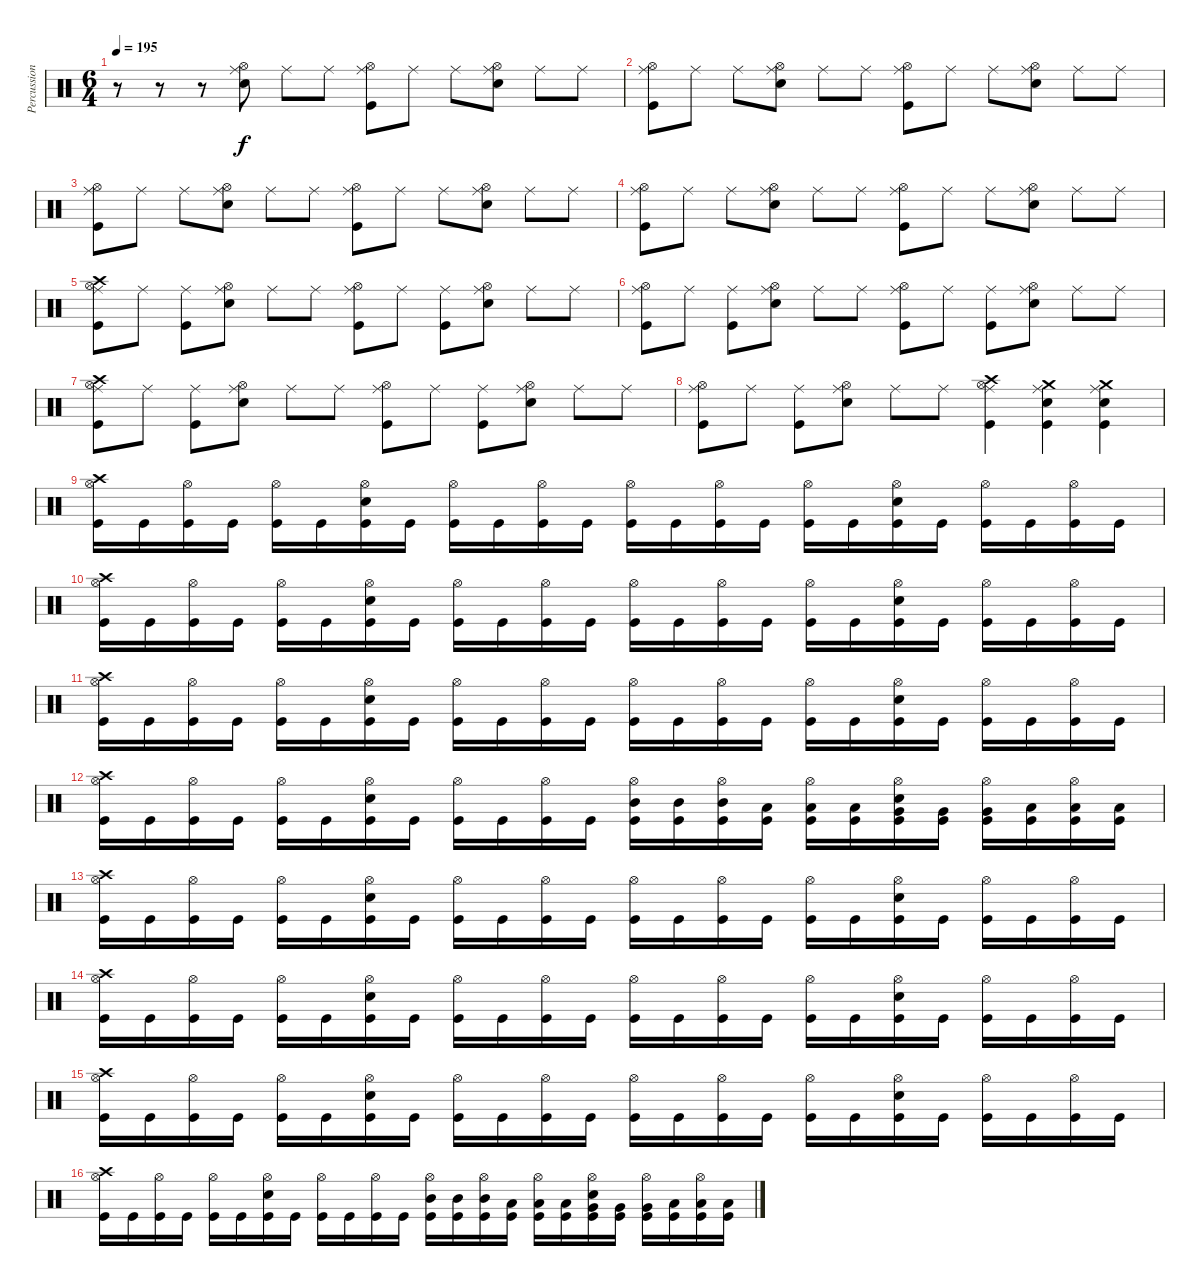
\track ("Percussion" "Percussion") {instrument percussion}
\staff {score}
\articulation defaults
\ts (6 4)
\tempo 195
\clef neutral
\ks c
r.8{dy f} r.8 r.8 ("Hi-Hat (open)" "Ride (middle)" "Electric Snare (hit)").8 "Ride (middle)".8 "Ride (middle)".8 ("Hi-Hat (open)" "Ride (middle)" "Kick (hit)").8 "Ride (middle)".8 "Ride (middle)".8 ("Hi-Hat (open)" "Ride (middle)" "Electric Snare (hit)").8 "Ride (middle)".8 "Ride (middle)".8 |
("Hi-Hat (open)" "Ride (middle)" "Kick (hit)").8 "Ride (middle)".8 "Ride (middle)".8 ("Hi-Hat (open)" "Ride (middle)" "Electric Snare (hit)").8 "Ride (middle)".8 "Ride (middle)".8 ("Hi-Hat (open)" "Ride (middle)" "Kick (hit)").8 "Ride (middle)".8 "Ride (middle)".8 ("Hi-Hat (open)" "Ride (middle)" "Electric Snare (hit)").8 "Ride (middle)".8 "Ride (middle)".8 |
("Hi-Hat (open)" "Ride (middle)" "Kick (hit)").8 "Ride (middle)".8 "Ride (middle)".8 ("Hi-Hat (open)" "Ride (middle)" "Electric Snare (hit)").8 "Ride (middle)".8 "Ride (middle)".8 ("Hi-Hat (open)" "Ride (middle)" "Kick (hit)").8 "Ride (middle)".8 "Ride (middle)".8 ("Hi-Hat (open)" "Ride (middle)" "Electric Snare (hit)").8 "Ride (middle)".8 "Ride (middle)".8 |
("Hi-Hat (open)" "Ride (middle)" "Kick (hit)").8 "Ride (middle)".8 "Ride (middle)".8 ("Hi-Hat (open)" "Ride (middle)" "Electric Snare (hit)").8 "Ride (middle)".8 "Ride (middle)".8 ("Hi-Hat (open)" "Ride (middle)" "Kick (hit)").8 "Ride (middle)".8 "Ride (middle)".8 ("Hi-Hat (open)" "Ride (middle)" "Electric Snare (hit)").8 "Ride (middle)".8 "Ride (middle)".8 |
("Hi-Hat (open)" "Ride (middle)" "Crash high (hit)" "Kick (hit)").8 "Ride (middle)".8 ("Ride (middle)" "Kick (hit)").8 ("Hi-Hat (open)" "Ride (middle)" "Electric Snare (hit)").8 "Ride (middle)".8 "Ride (middle)".8 ("Hi-Hat (open)" "Ride (middle)" "Kick (hit)").8 "Ride (middle)".8 ("Ride (middle)" "Kick (hit)").8 ("Hi-Hat (open)" "Ride (middle)" "Electric Snare (hit)").8 "Ride (middle)".8 "Ride (middle)".8 |
("Hi-Hat (open)" "Ride (middle)" "Kick (hit)").8 "Ride (middle)".8 ("Ride (middle)" "Kick (hit)").8 ("Hi-Hat (open)" "Ride (middle)" "Electric Snare (hit)").8 "Ride (middle)".8 "Ride (middle)".8 ("Hi-Hat (open)" "Ride (middle)" "Kick (hit)").8 "Ride (middle)".8 ("Ride (middle)" "Kick (hit)").8 ("Hi-Hat (open)" "Ride (middle)" "Electric Snare (hit)").8 "Ride (middle)".8 "Ride (middle)".8 |
("Hi-Hat (open)" "Ride (middle)" "Crash high (hit)" "Kick (hit)").8 "Ride (middle)".8 ("Ride (middle)" "Kick (hit)").8 ("Hi-Hat (open)" "Ride (middle)" "Electric Snare (hit)").8 "Ride (middle)".8 "Ride (middle)".8 ("Hi-Hat (open)" "Ride (middle)" "Kick (hit)").8 "Ride (middle)".8 ("Ride (middle)" "Kick (hit)").8 ("Hi-Hat (open)" "Ride (middle)" "Electric Snare (hit)").8 "Ride (middle)".8 "Ride (middle)".8 |
("Hi-Hat (open)" "Ride (middle)" "Kick (hit)").8 "Ride (middle)".8 ("Ride (middle)" "Kick (hit)").8 ("Hi-Hat (open)" "Ride (middle)" "Electric Snare (hit)").8 "Ride (middle)".8 "Ride (middle)".8 ("Hi-Hat (open)" "Ride (middle)" "Crash high (hit)" "Kick (hit)").4 ("Crash medium (hit)" "Ride (middle)" "Electric Snare (hit)" "Kick (hit)").4 ("Crash medium (hit)" "Ride (middle)" "Electric Snare (hit)" "Kick (hit)").4 |
("Crash high (hit)" "Hi-Hat (open)" "Kick (hit)").16 "Kick (hit)".16 ("Hi-Hat (open)" "Kick (hit)").16 "Kick (hit)".16 ("Hi-Hat (open)" "Kick (hit)").16 "Kick (hit)".16 ("Electric Snare (hit)" "Hi-Hat (open)" "Kick (hit)").16 "Kick (hit)".16 ("Hi-Hat (open)" "Kick (hit)").16 "Kick (hit)".16 ("Hi-Hat (open)" "Kick (hit)").16 "Kick (hit)".16 ("Hi-Hat (open)" "Kick (hit)").16 "Kick (hit)".16 ("Hi-Hat (open)" "Kick (hit)").16 "Kick (hit)".16 ("Hi-Hat (open)" "Kick (hit)").16 "Kick (hit)".16 ("Electric Snare (hit)" "Hi-Hat (open)" "Kick (hit)").16 "Kick (hit)".16 ("Hi-Hat (open)" "Kick (hit)").16 "Kick (hit)".16 ("Hi-Hat (open)" "Kick (hit)").16 "Kick (hit)".16 |
("Crash high (hit)" "Hi-Hat (open)" "Kick (hit)").16 "Kick (hit)".16 ("Hi-Hat (open)" "Kick (hit)").16 "Kick (hit)".16 ("Hi-Hat (open)" "Kick (hit)").16 "Kick (hit)".16 ("Electric Snare (hit)" "Hi-Hat (open)" "Kick (hit)").16 "Kick (hit)".16 ("Hi-Hat (open)" "Kick (hit)").16 "Kick (hit)".16 ("Hi-Hat (open)" "Kick (hit)").16 "Kick (hit)".16 ("Hi-Hat (open)" "Kick (hit)").16 "Kick (hit)".16 ("Hi-Hat (open)" "Kick (hit)").16 "Kick (hit)".16 ("Hi-Hat (open)" "Kick (hit)").16 "Kick (hit)".16 ("Electric Snare (hit)" "Hi-Hat (open)" "Kick (hit)").16 "Kick (hit)".16 ("Hi-Hat (open)" "Kick (hit)").16 "Kick (hit)".16 ("Hi-Hat (open)" "Kick (hit)").16 "Kick (hit)".16 |
("Crash high (hit)" "Hi-Hat (open)" "Kick (hit)").16 "Kick (hit)".16 ("Hi-Hat (open)" "Kick (hit)").16 "Kick (hit)".16 ("Hi-Hat (open)" "Kick (hit)").16 "Kick (hit)".16 ("Electric Snare (hit)" "Hi-Hat (open)" "Kick (hit)").16 "Kick (hit)".16 ("Hi-Hat (open)" "Kick (hit)").16 "Kick (hit)".16 ("Hi-Hat (open)" "Kick (hit)").16 "Kick (hit)".16 ("Hi-Hat (open)" "Kick (hit)").16 "Kick (hit)".16 ("Hi-Hat (open)" "Kick (hit)").16 "Kick (hit)".16 ("Hi-Hat (open)" "Kick (hit)").16 "Kick (hit)".16 ("Electric Snare (hit)" "Hi-Hat (open)" "Kick (hit)").16 "Kick (hit)".16 ("Hi-Hat (open)" "Kick (hit)").16 "Kick (hit)".16 ("Hi-Hat (open)" "Kick (hit)").16 "Kick (hit)".16 |
("Crash high (hit)" "Hi-Hat (open)" "Kick (hit)").16 "Kick (hit)".16 ("Hi-Hat (open)" "Kick (hit)").16 "Kick (hit)".16 ("Hi-Hat (open)" "Kick (hit)").16 "Kick (hit)".16 ("Electric Snare (hit)" "Hi-Hat (open)" "Kick (hit)").16 "Kick (hit)".16 ("Hi-Hat (open)" "Kick (hit)").16 "Kick (hit)".16 ("Hi-Hat (open)" "Kick (hit)").16 "Kick (hit)".16 ("Hi-Hat (open)" "Mid Tom (hit)" "Kick (hit)").16 ("Mid Tom (hit)" "Kick (hit)").16 ("Hi-Hat (open)" "Mid Tom (hit)" "Kick (hit)").16 ("Low Tom (hit)" "Kick (hit)").16 ("Hi-Hat (open)" "Low Tom (hit)" "Kick (hit)").16 ("Low Tom (hit)" "Kick (hit)").16 ("Electric Snare (hit)" "Hi-Hat (open)" "Very Low Tom (hit)" "Kick (hit)").16 ("Very Low Tom (hit)" "Kick (hit)").16 ("Hi-Hat (open)" "Very Low Tom (hit)" "Kick (hit)").16 ("Low Floor Tom (hit)" "Kick (hit)").16 ("Hi-Hat (open)" "Low Floor Tom (hit)" "Kick (hit)").16 ("Low Floor Tom (hit)" "Kick (hit)").16 |
("Crash high (hit)" "Hi-Hat (open)" "Kick (hit)").16 "Kick (hit)".16 ("Hi-Hat (open)" "Kick (hit)").16 "Kick (hit)".16 ("Hi-Hat (open)" "Kick (hit)").16 "Kick (hit)".16 ("Electric Snare (hit)" "Hi-Hat (open)" "Kick (hit)").16 "Kick (hit)".16 ("Hi-Hat (open)" "Kick (hit)").16 "Kick (hit)".16 ("Hi-Hat (open)" "Kick (hit)").16 "Kick (hit)".16 ("Hi-Hat (open)" "Kick (hit)").16 "Kick (hit)".16 ("Hi-Hat (open)" "Kick (hit)").16 "Kick (hit)".16 ("Hi-Hat (open)" "Kick (hit)").16 "Kick (hit)".16 ("Electric Snare (hit)" "Hi-Hat (open)" "Kick (hit)").16 "Kick (hit)".16 ("Hi-Hat (open)" "Kick (hit)").16 "Kick (hit)".16 ("Hi-Hat (open)" "Kick (hit)").16 "Kick (hit)".16 |
("Crash high (hit)" "Hi-Hat (open)" "Kick (hit)").16 "Kick (hit)".16 ("Hi-Hat (open)" "Kick (hit)").16 "Kick (hit)".16 ("Hi-Hat (open)" "Kick (hit)").16 "Kick (hit)".16 ("Electric Snare (hit)" "Hi-Hat (open)" "Kick (hit)").16 "Kick (hit)".16 ("Hi-Hat (open)" "Kick (hit)").16 "Kick (hit)".16 ("Hi-Hat (open)" "Kick (hit)").16 "Kick (hit)".16 ("Hi-Hat (open)" "Kick (hit)").16 "Kick (hit)".16 ("Hi-Hat (open)" "Kick (hit)").16 "Kick (hit)".16 ("Hi-Hat (open)" "Kick (hit)").16 "Kick (hit)".16 ("Electric Snare (hit)" "Hi-Hat (open)" "Kick (hit)").16 "Kick (hit)".16 ("Hi-Hat (open)" "Kick (hit)").16 "Kick (hit)".16 ("Hi-Hat (open)" "Kick (hit)").16 "Kick (hit)".16 |
("Crash high (hit)" "Hi-Hat (open)" "Kick (hit)").16 "Kick (hit)".16 ("Hi-Hat (open)" "Kick (hit)").16 "Kick (hit)".16 ("Hi-Hat (open)" "Kick (hit)").16 "Kick (hit)".16 ("Electric Snare (hit)" "Hi-Hat (open)" "Kick (hit)").16 "Kick (hit)".16 ("Hi-Hat (open)" "Kick (hit)").16 "Kick (hit)".16 ("Hi-Hat (open)" "Kick (hit)").16 "Kick (hit)".16 ("Hi-Hat (open)" "Kick (hit)").16 "Kick (hit)".16 ("Hi-Hat (open)" "Kick (hit)").16 "Kick (hit)".16 ("Hi-Hat (open)" "Kick (hit)").16 "Kick (hit)".16 ("Electric Snare (hit)" "Hi-Hat (open)" "Kick (hit)").16 "Kick (hit)".16 ("Hi-Hat (open)" "Kick (hit)").16 "Kick (hit)".16 ("Hi-Hat (open)" "Kick (hit)").16 "Kick (hit)".16 |
("Crash high (hit)" "Hi-Hat (open)" "Kick (hit)").16 "Kick (hit)".16 ("Hi-Hat (open)" "Kick (hit)").16 "Kick (hit)".16 ("Hi-Hat (open)" "Kick (hit)").16 "Kick (hit)".16 ("Electric Snare (hit)" "Hi-Hat (open)" "Kick (hit)").16 "Kick (hit)".16 ("Hi-Hat (open)" "Kick (hit)").16 "Kick (hit)".16 ("Hi-Hat (open)" "Kick (hit)").16 "Kick (hit)".16 ("Hi-Hat (open)" "Mid Tom (hit)" "Kick (hit)").16 ("Mid Tom (hit)" "Kick (hit)").16 ("Hi-Hat (open)" "Mid Tom (hit)" "Kick (hit)").16 ("Low Tom (hit)" "Kick (hit)").16 ("Hi-Hat (open)" "Low Tom (hit)" "Kick (hit)").16 ("Low Tom (hit)" "Kick (hit)").16 ("Electric Snare (hit)" "Hi-Hat (open)" "Very Low Tom (hit)" "Kick (hit)").16 ("Very Low Tom (hit)" "Kick (hit)").16 ("Hi-Hat (open)" "Very Low Tom (hit)" "Kick (hit)").16 ("Low Floor Tom (hit)" "Kick (hit)").16 ("Hi-Hat (open)" "Low Floor Tom (hit)" "Kick (hit)").16 ("Low Floor Tom (hit)" "Kick (hit)").16
